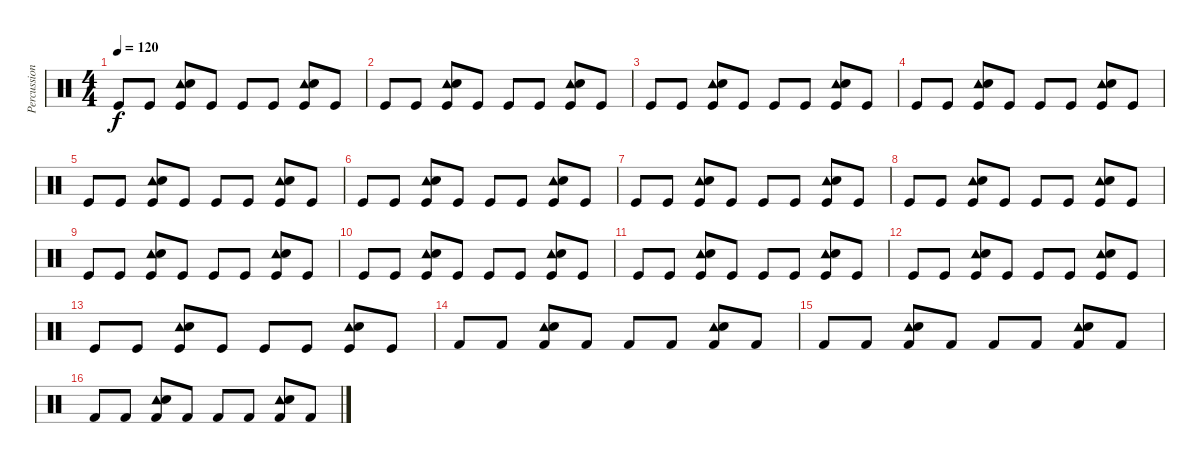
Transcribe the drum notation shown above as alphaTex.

\track ("Percussions" "Percussion") {instrument percussion}
\staff {score}
\articulation defaults
\ts (4 4)
\tempo 120
\clef neutral
\ks c "Kick (hit)".8{dy f} "Kick (hit)".8
("Kick (hit)" "Tambourine (hit)" "Snare (hit) 2").8 "Kick (hit)".8 "Kick (hit)".8 "Kick (hit)".8 ("Kick (hit)" "Tambourine (hit)" "Snare (hit) 2").8 "Kick (hit)".8 |
"Kick (hit)".8 "Kick (hit)".8 ("Kick (hit)" "Tambourine (hit)" "Snare (hit) 2").8 "Kick (hit)".8 "Kick (hit)".8 "Kick (hit)".8 ("Kick (hit)" "Tambourine (hit)" "Snare (hit) 2").8 "Kick (hit)".8 |
"Kick (hit)".8 "Kick (hit)".8 ("Kick (hit)" "Tambourine (hit)" "Snare (hit) 2").8 "Kick (hit)".8 "Kick (hit)".8 "Kick (hit)".8 ("Kick (hit)" "Tambourine (hit)" "Snare (hit) 2").8 "Kick (hit)".8 |
"Kick (hit)".8 "Kick (hit)".8 ("Kick (hit)" "Tambourine (hit)" "Snare (hit) 2").8 "Kick (hit)".8 "Kick (hit)".8 "Kick (hit)".8 ("Kick (hit)" "Tambourine (hit)" "Snare (hit) 2").8 "Kick (hit)".8 |
"Kick (hit)".8 "Kick (hit)".8 ("Kick (hit)" "Tambourine (hit)" "Snare (hit) 2").8 "Kick (hit)".8 "Kick (hit)".8 "Kick (hit)".8 ("Kick (hit)" "Tambourine (hit)" "Snare (hit) 2").8 "Kick (hit)".8 |
"Kick (hit)".8 "Kick (hit)".8 ("Kick (hit)" "Tambourine (hit)" "Snare (hit) 2").8 "Kick (hit)".8 "Kick (hit)".8 "Kick (hit)".8 ("Kick (hit)" "Tambourine (hit)" "Snare (hit) 2").8 "Kick (hit)".8 |
"Kick (hit)".8 "Kick (hit)".8 ("Kick (hit)" "Tambourine (hit)" "Snare (hit) 2").8 "Kick (hit)".8 "Kick (hit)".8 "Kick (hit)".8 ("Kick (hit)" "Tambourine (hit)" "Snare (hit) 2").8 "Kick (hit)".8 |
"Kick (hit)".8 "Kick (hit)".8 ("Kick (hit)" "Tambourine (hit)" "Snare (hit) 2").8 "Kick (hit)".8 "Kick (hit)".8 "Kick (hit)".8 ("Kick (hit)" "Tambourine (hit)" "Snare (hit) 2").8 "Kick (hit)".8 |
"Kick (hit)".8 "Kick (hit)".8 ("Kick (hit)" "Tambourine (hit)" "Snare (hit) 2").8 "Kick (hit)".8 "Kick (hit)".8 "Kick (hit)".8 ("Kick (hit)" "Tambourine (hit)" "Snare (hit) 2").8 "Kick (hit)".8 |
"Kick (hit)".8 "Kick (hit)".8 ("Kick (hit)" "Tambourine (hit)" "Snare (hit) 2").8 "Kick (hit)".8 "Kick (hit)".8 "Kick (hit)".8 ("Kick (hit)" "Tambourine (hit)" "Snare (hit) 2").8 "Kick (hit)".8 |
"Kick (hit)".8 "Kick (hit)".8 ("Kick (hit)" "Tambourine (hit)" "Snare (hit) 2").8 "Kick (hit)".8 "Kick (hit)".8 "Kick (hit)".8 ("Kick (hit)" "Tambourine (hit)" "Snare (hit) 2").8 "Kick (hit)".8 |
"Kick (hit)".8 "Kick (hit)".8 ("Kick (hit)" "Tambourine (hit)" "Snare (hit) 2").8 "Kick (hit)".8 "Kick (hit)".8 "Kick (hit)".8 ("Kick (hit)" "Tambourine (hit)" "Snare (hit) 2").8 "Kick (hit)".8 |
"Kick (hit)".8 "Kick (hit)".8 ("Kick (hit)" "Tambourine (hit)" "Snare (hit) 2").8 "Kick (hit)".8 "Kick (hit)".8 "Kick (hit)".8 ("Kick (hit)" "Tambourine (hit)" "Snare (hit) 2").8 "Kick (hit)".8 |
"Kick (hit) 2".8 "Kick (hit) 2".8 ("Kick (hit) 2" "Tambourine (hit)" "Snare (hit) 2").8 "Kick (hit) 2".8 "Kick (hit) 2".8 "Kick (hit) 2".8 ("Kick (hit) 2" "Tambourine (hit)" "Snare (hit) 2").8 "Kick (hit) 2".8 |
"Kick (hit) 2".8 "Kick (hit) 2".8 ("Kick (hit) 2" "Tambourine (hit)" "Snare (hit) 2").8 "Kick (hit) 2".8 "Kick (hit) 2".8 "Kick (hit) 2".8 ("Kick (hit) 2" "Tambourine (hit)" "Snare (hit) 2").8 "Kick (hit) 2".8 |
"Kick (hit) 2".8 "Kick (hit) 2".8 ("Kick (hit) 2" "Tambourine (hit)" "Snare (hit) 2").8 "Kick (hit) 2".8 "Kick (hit) 2".8 "Kick (hit) 2".8 ("Kick (hit) 2" "Tambourine (hit)" "Snare (hit) 2").8 "Kick (hit) 2".8
